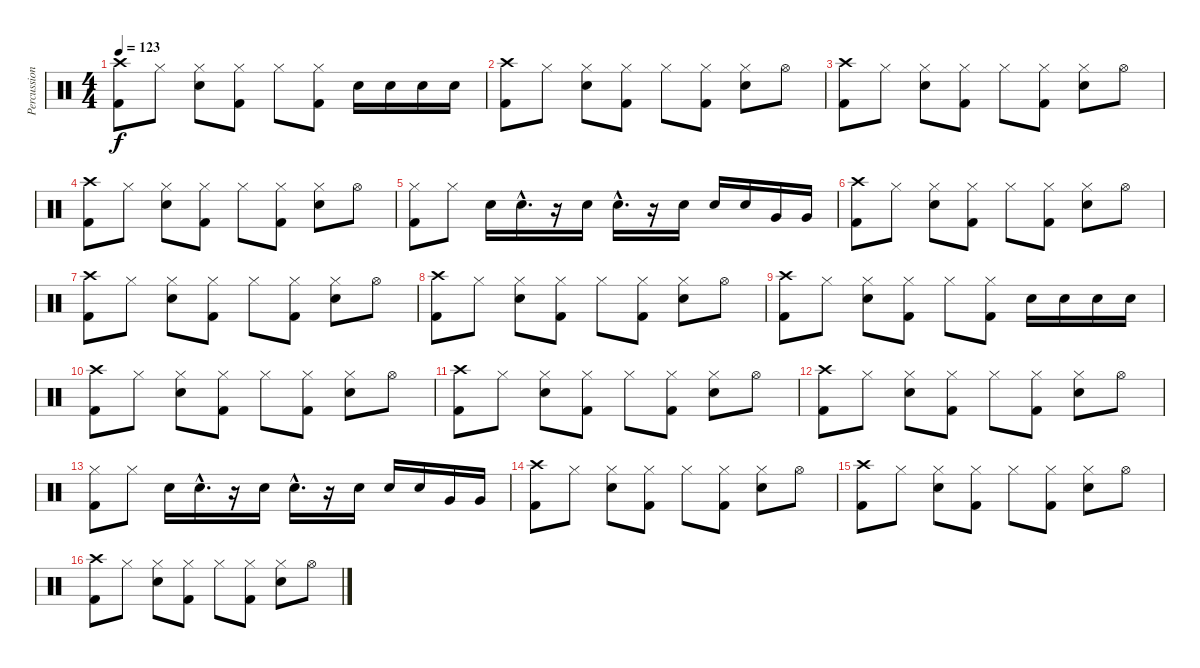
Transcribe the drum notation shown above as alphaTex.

\track ("Percussions" "Percussion") {instrument percussion}
\staff {score}
\articulation defaults
\ts (4 4)
\tempo 123
\clef neutral
\ks c
("Crash high (hit)" "Kick (hit) 2").8{dy f} "Hi-Hat (closed)".8 ("Hi-Hat (closed)" "Snare (hit) 2").8 ("Hi-Hat (closed)" "Kick (hit) 2").8 "Hi-Hat (closed)".8 ("Hi-Hat (closed)" "Kick (hit) 2").8 "Snare (hit) 2".16 "Snare (hit) 2".16 "Snare (hit) 2".16 "Snare (hit) 2".16 |
("Crash high (hit)" "Kick (hit) 2").8 "Hi-Hat (closed)".8 ("Hi-Hat (closed)" "Snare (hit) 2").8 ("Hi-Hat (closed)" "Kick (hit) 2").8 "Hi-Hat (closed)".8 ("Hi-Hat (closed)" "Kick (hit) 2").8 ("Hi-Hat (closed)" "Snare (hit) 2").8 "Hi-Hat (open)".8 |
("Crash high (hit)" "Kick (hit) 2").8 "Hi-Hat (closed)".8 ("Hi-Hat (closed)" "Snare (hit) 2").8 ("Hi-Hat (closed)" "Kick (hit) 2").8 "Hi-Hat (closed)".8 ("Hi-Hat (closed)" "Kick (hit) 2").8 ("Hi-Hat (closed)" "Snare (hit) 2").8 "Hi-Hat (open)".8 |
("Crash high (hit)" "Kick (hit) 2").8 "Hi-Hat (closed)".8 ("Hi-Hat (closed)" "Snare (hit) 2").8 ("Hi-Hat (closed)" "Kick (hit) 2").8 "Hi-Hat (closed)".8 ("Hi-Hat (closed)" "Kick (hit) 2").8 ("Hi-Hat (closed)" "Snare (hit) 2").8 "Hi-Hat (open)".8 |
("Hi-Hat (closed)" "Kick (hit) 2").8 "Hi-Hat (closed)".8 "Snare (hit) 2".16 "Snare (hit) 2"{hac}.16{d} r.16 "Snare (hit) 2".16 "Snare (hit) 2"{hac}.16{d} r.16 "Snare (hit) 2".16 "Snare (hit) 2".16 "Snare (hit) 2".16 "Very Low Tom (hit)".16 "Very Low Tom (hit)".16 |
("Crash high (hit)" "Kick (hit) 2").8 "Hi-Hat (closed)".8 ("Hi-Hat (closed)" "Snare (hit) 2").8 ("Hi-Hat (closed)" "Kick (hit) 2").8 "Hi-Hat (closed)".8 ("Hi-Hat (closed)" "Kick (hit) 2").8 ("Hi-Hat (closed)" "Snare (hit) 2").8 "Hi-Hat (open)".8 |
("Crash high (hit)" "Kick (hit) 2").8 "Hi-Hat (closed)".8 ("Hi-Hat (closed)" "Snare (hit) 2").8 ("Hi-Hat (closed)" "Kick (hit) 2").8 "Hi-Hat (closed)".8 ("Hi-Hat (closed)" "Kick (hit) 2").8 ("Hi-Hat (closed)" "Snare (hit) 2").8 "Hi-Hat (open)".8 |
("Crash high (hit)" "Kick (hit) 2").8 "Hi-Hat (closed)".8 ("Hi-Hat (closed)" "Snare (hit) 2").8 ("Hi-Hat (closed)" "Kick (hit) 2").8 "Hi-Hat (closed)".8 ("Hi-Hat (closed)" "Kick (hit) 2").8 ("Hi-Hat (closed)" "Snare (hit) 2").8 "Hi-Hat (open)".8 |
("Crash high (hit)" "Kick (hit) 2").8 "Hi-Hat (closed)".8 ("Hi-Hat (closed)" "Snare (hit) 2").8 ("Hi-Hat (closed)" "Kick (hit) 2").8 "Hi-Hat (closed)".8 ("Hi-Hat (closed)" "Kick (hit) 2").8 "Snare (hit) 2".16 "Snare (hit) 2".16 "Snare (hit) 2".16 "Snare (hit) 2".16 |
("Crash high (hit)" "Kick (hit) 2").8 "Hi-Hat (closed)".8 ("Hi-Hat (closed)" "Snare (hit) 2").8 ("Hi-Hat (closed)" "Kick (hit) 2").8 "Hi-Hat (closed)".8 ("Hi-Hat (closed)" "Kick (hit) 2").8 ("Hi-Hat (closed)" "Snare (hit) 2").8 "Hi-Hat (open)".8 |
("Crash high (hit)" "Kick (hit) 2").8 "Hi-Hat (closed)".8 ("Hi-Hat (closed)" "Snare (hit) 2").8 ("Hi-Hat (closed)" "Kick (hit) 2").8 "Hi-Hat (closed)".8 ("Hi-Hat (closed)" "Kick (hit) 2").8 ("Hi-Hat (closed)" "Snare (hit) 2").8 "Hi-Hat (open)".8 |
("Crash high (hit)" "Kick (hit) 2").8 "Hi-Hat (closed)".8 ("Hi-Hat (closed)" "Snare (hit) 2").8 ("Hi-Hat (closed)" "Kick (hit) 2").8 "Hi-Hat (closed)".8 ("Hi-Hat (closed)" "Kick (hit) 2").8 ("Hi-Hat (closed)" "Snare (hit) 2").8 "Hi-Hat (open)".8 |
("Hi-Hat (closed)" "Kick (hit) 2").8 "Hi-Hat (closed)".8 "Snare (hit) 2".16 "Snare (hit) 2"{hac}.16{d} r.16 "Snare (hit) 2".16 "Snare (hit) 2"{hac}.16{d} r.16 "Snare (hit) 2".16 "Snare (hit) 2".16 "Snare (hit) 2".16 "Very Low Tom (hit)".16 "Very Low Tom (hit)".16 |
("Crash high (hit)" "Kick (hit) 2").8 "Hi-Hat (closed)".8 ("Hi-Hat (closed)" "Snare (hit) 2").8 ("Hi-Hat (closed)" "Kick (hit) 2").8 "Hi-Hat (closed)".8 ("Hi-Hat (closed)" "Kick (hit) 2").8 ("Hi-Hat (closed)" "Snare (hit) 2").8 "Hi-Hat (open)".8 |
("Crash high (hit)" "Kick (hit) 2").8 "Hi-Hat (closed)".8 ("Hi-Hat (closed)" "Snare (hit) 2").8 ("Hi-Hat (closed)" "Kick (hit) 2").8 "Hi-Hat (closed)".8 ("Hi-Hat (closed)" "Kick (hit) 2").8 ("Hi-Hat (closed)" "Snare (hit) 2").8 "Hi-Hat (open)".8 |
("Crash high (hit)" "Kick (hit) 2").8 "Hi-Hat (closed)".8 ("Hi-Hat (closed)" "Snare (hit) 2").8 ("Hi-Hat (closed)" "Kick (hit) 2").8 "Hi-Hat (closed)".8 ("Hi-Hat (closed)" "Kick (hit) 2").8 ("Hi-Hat (closed)" "Snare (hit) 2").8 "Hi-Hat (open)".8
